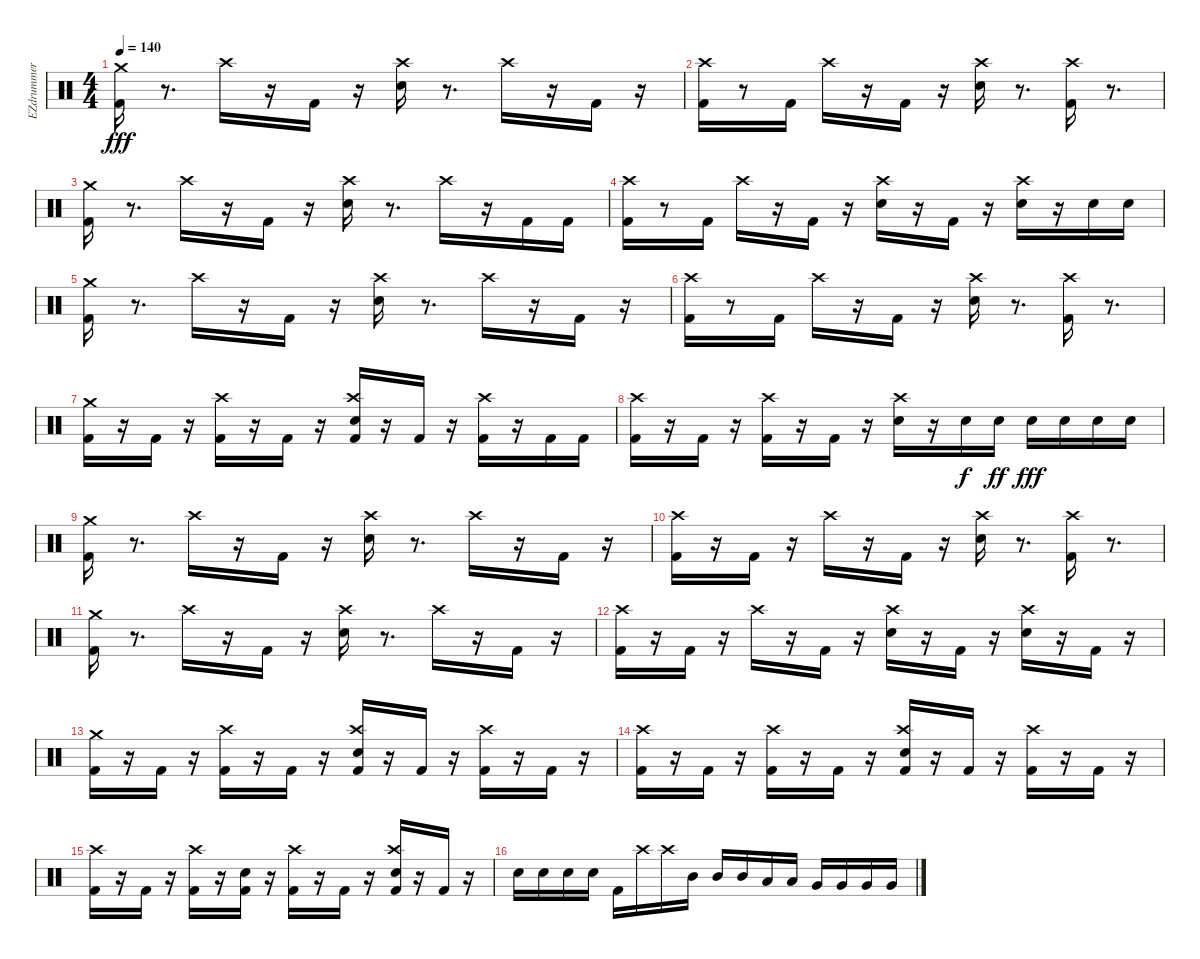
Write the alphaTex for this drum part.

\track ("EZdrummer" "EZdrummer") {instrument percussion}
\staff {score}
\articulation defaults
\ts (4 4)
\tempo 140
\clef neutral
\ks c
("Kick (hit) 2" "Crash medium (hit)").16{dy fff} r.8{d} "Crash high (hit)".16 r.16 "Kick (hit) 2".16 r.16 ("Snare (hit) 2" "Crash high (hit)").16 r.8{d} "Crash high (hit)".16 r.16 "Kick (hit) 2".16 r.16 |
("Kick (hit) 2" "Crash high (hit)").16 r.8 "Kick (hit) 2".16 "Crash high (hit)".16 r.16 "Kick (hit) 2".16 r.16 ("Snare (hit) 2" "Crash high (hit)").16 r.8{d} ("Kick (hit) 2" "Crash high (hit)").16 r.8{d} |
("Kick (hit) 2" "Crash medium (hit)").16 r.8{d} "Crash high (hit)".16 r.16 "Kick (hit) 2".16 r.16 ("Snare (hit) 2" "Crash high (hit)").16 r.8{d} "Crash high (hit)".16 r.16 "Kick (hit) 2".16 "Kick (hit) 2".16 |
("Kick (hit) 2" "Crash high (hit)").16 r.8 "Kick (hit) 2".16 "Crash high (hit)".16 r.16 "Kick (hit) 2".16 r.16 ("Snare (hit) 2" "Crash high (hit)").16 r.16 "Kick (hit) 2".16 r.16 ("Snare (hit) 2" "Crash high (hit)").16 r.16 "Snare (hit) 2".16 "Snare (hit) 2".16 |
("Kick (hit) 2" "Crash medium (hit)").16 r.8{d} "Crash high (hit)".16 r.16 "Kick (hit) 2".16 r.16 ("Snare (hit) 2" "Crash high (hit)").16 r.8{d} "Crash high (hit)".16 r.16 "Kick (hit) 2".16 r.16 |
("Kick (hit) 2" "Crash high (hit)").16 r.8 "Kick (hit) 2".16 "Crash high (hit)".16 r.16 "Kick (hit) 2".16 r.16 ("Snare (hit) 2" "Crash high (hit)").16 r.8{d} ("Kick (hit) 2" "Crash high (hit)").16 r.8{d} |
("Kick (hit) 2" "Crash medium (hit)").16 r.16 "Kick (hit) 2".16 r.16 ("Kick (hit) 2" "Crash high (hit)").16 r.16 "Kick (hit) 2".16 r.16 ("Kick (hit) 2" "Snare (hit) 2" "Crash high (hit)").16 r.16 "Kick (hit) 2".16 r.16 ("Kick (hit) 2" "Crash high (hit)").16 r.16 "Kick (hit) 2".16 "Kick (hit) 2".16 |
("Kick (hit) 2" "Crash high (hit)").16 r.16 "Kick (hit) 2".16 r.16 ("Kick (hit) 2" "Crash high (hit)").16 r.16 "Kick (hit) 2".16 r.16 ("Snare (hit) 2" "Crash high (hit)").16 r.16 "Snare (hit) 2".16{dy f} "Snare (hit) 2".16{dy ff} "Snare (hit) 2".16{dy fff} "Snare (hit) 2".16 "Snare (hit) 2".16 "Snare (hit) 2".16 |
("Kick (hit) 2" "Crash medium (hit)").16 r.8{d} "Crash high (hit)".16 r.16 "Kick (hit) 2".16 r.16 ("Snare (hit) 2" "Crash high (hit)").16 r.8{d} "Crash high (hit)".16 r.16 "Kick (hit) 2".16 r.16 |
("Kick (hit) 2" "Crash high (hit)").16 r.16 "Kick (hit) 2".16 r.16 "Crash high (hit)".16 r.16 "Kick (hit) 2".16 r.16 ("Snare (hit) 2" "Crash high (hit)").16 r.8{d} ("Kick (hit) 2" "Crash high (hit)").16 r.8{d} |
("Kick (hit) 2" "Crash medium (hit)").16 r.8{d} "Crash high (hit)".16 r.16 "Kick (hit) 2".16 r.16 ("Snare (hit) 2" "Crash high (hit)").16 r.8{d} "Crash high (hit)".16 r.16 "Kick (hit) 2".16 r.16 |
("Kick (hit) 2" "Crash high (hit)").16 r.16 "Kick (hit) 2".16 r.16 "Crash high (hit)".16 r.16 "Kick (hit) 2".16 r.16 ("Snare (hit) 2" "Crash high (hit)").16 r.16 "Kick (hit) 2".16 r.16 ("Snare (hit) 2" "Crash high (hit)").16 r.16 "Kick (hit) 2".16 r.16 |
("Kick (hit) 2" "Crash medium (hit)").16 r.16 "Kick (hit) 2".16 r.16 ("Kick (hit) 2" "Crash high (hit)").16 r.16 "Kick (hit) 2".16 r.16 ("Kick (hit) 2" "Snare (hit) 2" "Crash high (hit)").16 r.16 "Kick (hit) 2".16 r.16 ("Kick (hit) 2" "Crash high (hit)").16 r.16 "Kick (hit) 2".16 r.16 |
("Kick (hit) 2" "Crash high (hit)").16 r.16 "Kick (hit) 2".16 r.16 ("Kick (hit) 2" "Crash high (hit)").16 r.16 "Kick (hit) 2".16 r.16 ("Kick (hit) 2" "Snare (hit) 2" "Crash high (hit)").16 r.16 "Kick (hit) 2".16 r.16 ("Kick (hit) 2" "Crash high (hit)").16 r.16 "Kick (hit) 2".16 r.16 |
("Kick (hit) 2" "Crash high (hit)").16 r.16 "Kick (hit) 2".16 r.16 ("Kick (hit) 2" "Crash high (hit)").16 r.16 ("Kick (hit) 2" "Snare (hit) 2").16 r.16 ("Kick (hit) 2" "Crash high (hit)").16 r.16 "Kick (hit) 2".16 r.16 ("Kick (hit) 2" "Snare (hit) 2" "Crash high (hit)").16 r.16 "Kick (hit) 2".16 r.16 |
"Snare (hit) 2".16 "Snare (hit) 2".16 "Snare (hit) 2".16 "Snare (hit) 2".16 "Kick (hit) 2".16 "Crash high (hit)".16 "Crash high (hit)".16 "Mid Tom (hit)".16 "Mid Tom (hit)".16 "Mid Tom (hit)".16 "Low Tom (hit)".16 "Low Tom (hit)".16 "Very Low Tom (hit)".16 "Very Low Tom (hit)".16 "Very Low Tom (hit)".16 "Very Low Tom (hit)".16
